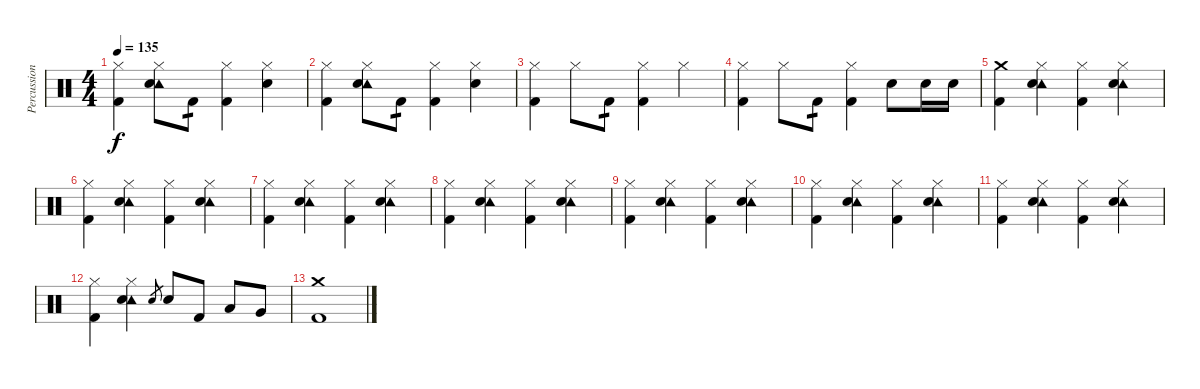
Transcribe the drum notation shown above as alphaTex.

\track ("Percussion" "Percussion") {instrument percussion}
\staff {score}
\articulation defaults
\ts (4 4)
\tempo 135
\clef neutral
\ks c
("Hi-Hat (closed)" "Kick (hit) 2").4{dy f} ("Hi-Hat (closed)" "Tambourine (hit)" "Electric Snare (hit)").8 "Kick (hit) 2".8{tp 1} ("Hi-Hat (closed)" "Kick (hit) 2").4 ("Hi-Hat (closed)" "Electric Snare (hit)").4 |
("Hi-Hat (closed)" "Kick (hit) 2").4 ("Hi-Hat (closed)" "Tambourine (hit)" "Electric Snare (hit)").8 "Kick (hit) 2".8{tp 1} ("Hi-Hat (closed)" "Kick (hit) 2").4 ("Hi-Hat (closed)" "Electric Snare (hit)").4 |
("Hi-Hat (closed)" "Kick (hit) 2").4 "Hi-Hat (closed)".8 "Kick (hit) 2".8{tp 1} ("Hi-Hat (closed)" "Kick (hit) 2").4 "Hi-Hat (closed)".4 |
("Hi-Hat (closed)" "Kick (hit) 2").4 "Hi-Hat (closed)".8 "Kick (hit) 2".8{tp 1} ("Hi-Hat (closed)" "Kick (hit) 2").4 "Electric Snare (hit)".8 "Electric Snare (hit)".16 "Electric Snare (hit)".16 |
("Crash medium (hit)" "Kick (hit) 2").4 ("Hi-Hat (closed)" "Tambourine (hit)" "Electric Snare (hit)").4 ("Hi-Hat (closed)" "Kick (hit) 2").4 ("Hi-Hat (closed)" "Tambourine (hit)" "Electric Snare (hit)").4 |
("Hi-Hat (closed)" "Kick (hit) 2").4 ("Hi-Hat (closed)" "Tambourine (hit)" "Electric Snare (hit)").4 ("Hi-Hat (closed)" "Kick (hit) 2").4 ("Hi-Hat (closed)" "Tambourine (hit)" "Electric Snare (hit)").4 |
("Hi-Hat (closed)" "Kick (hit) 2").4 ("Hi-Hat (closed)" "Tambourine (hit)" "Electric Snare (hit)").4 ("Hi-Hat (closed)" "Kick (hit) 2").4 ("Hi-Hat (closed)" "Tambourine (hit)" "Electric Snare (hit)").4 |
("Hi-Hat (closed)" "Kick (hit) 2").4 ("Hi-Hat (closed)" "Tambourine (hit)" "Electric Snare (hit)").4 ("Hi-Hat (closed)" "Kick (hit) 2").4 ("Hi-Hat (closed)" "Tambourine (hit)" "Electric Snare (hit)").4 |
("Hi-Hat (closed)" "Kick (hit) 2").4 ("Hi-Hat (closed)" "Tambourine (hit)" "Electric Snare (hit)").4 ("Hi-Hat (closed)" "Kick (hit) 2").4 ("Hi-Hat (closed)" "Tambourine (hit)" "Electric Snare (hit)").4 |
("Hi-Hat (closed)" "Kick (hit) 2").4 ("Hi-Hat (closed)" "Tambourine (hit)" "Electric Snare (hit)").4 ("Hi-Hat (closed)" "Kick (hit) 2").4 ("Hi-Hat (closed)" "Tambourine (hit)" "Electric Snare (hit)").4 |
("Hi-Hat (closed)" "Kick (hit) 2").4 ("Hi-Hat (closed)" "Tambourine (hit)" "Electric Snare (hit)").4 ("Hi-Hat (closed)" "Kick (hit) 2").4 ("Hi-Hat (closed)" "Tambourine (hit)" "Electric Snare (hit)").4 |
("Hi-Hat (closed)" "Kick (hit) 2").4 ("Hi-Hat (closed)" "Tambourine (hit)" "Electric Snare (hit)").4 "Electric Snare (hit)".8{gr} "Electric Snare (hit)".8 "Kick (hit) 2".8 "Low Tom (hit)".8 "Very Low Tom (hit)".8 |
\section ("" "")
("Crash medium (hit)" "Kick (hit) 2").1
